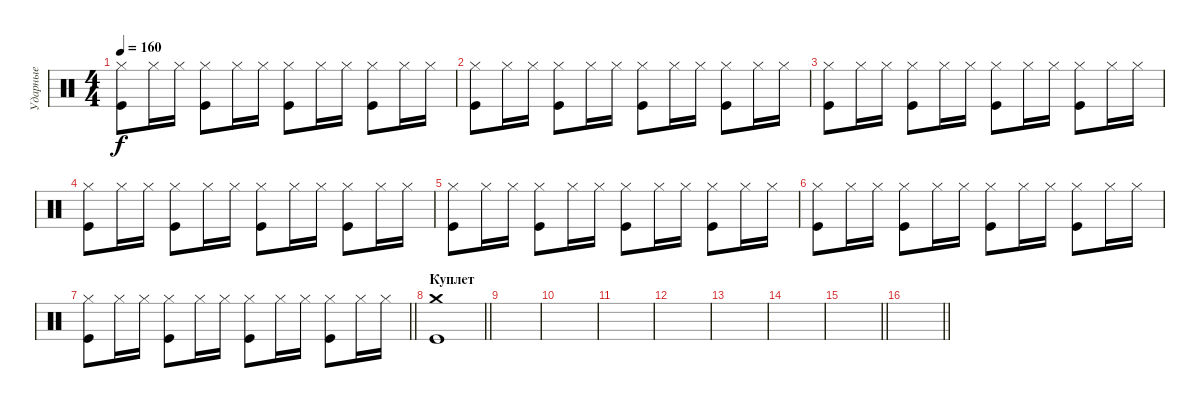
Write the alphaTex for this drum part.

\track ("Ударные" "Ударные") {instrument percussion}
\staff {score}
\articulation defaults
\ts (4 4)
\tempo 160
\clef neutral
\ks c
("Hi-Hat (closed)" "Kick (hit)").8{dy f} "Hi-Hat (closed)".16 "Hi-Hat (closed)".16 ("Hi-Hat (closed)" "Kick (hit)").8 "Hi-Hat (closed)".16 "Hi-Hat (closed)".16 ("Hi-Hat (closed)" "Kick (hit)").8 "Hi-Hat (closed)".16 "Hi-Hat (closed)".16 ("Hi-Hat (closed)" "Kick (hit)").8 "Hi-Hat (closed)".16 "Hi-Hat (closed)".16 |
("Hi-Hat (closed)" "Kick (hit)").8 "Hi-Hat (closed)".16 "Hi-Hat (closed)".16 ("Hi-Hat (closed)" "Kick (hit)").8 "Hi-Hat (closed)".16 "Hi-Hat (closed)".16 ("Hi-Hat (closed)" "Kick (hit)").8 "Hi-Hat (closed)".16 "Hi-Hat (closed)".16 ("Hi-Hat (closed)" "Kick (hit)").8 "Hi-Hat (closed)".16 "Hi-Hat (closed)".16 |
("Hi-Hat (closed)" "Kick (hit)").8 "Hi-Hat (closed)".16 "Hi-Hat (closed)".16 ("Hi-Hat (closed)" "Kick (hit)").8 "Hi-Hat (closed)".16 "Hi-Hat (closed)".16 ("Hi-Hat (closed)" "Kick (hit)").8 "Hi-Hat (closed)".16 "Hi-Hat (closed)".16 ("Hi-Hat (closed)" "Kick (hit)").8 "Hi-Hat (closed)".16 "Hi-Hat (closed)".16 |
("Hi-Hat (closed)" "Kick (hit)").8 "Hi-Hat (closed)".16 "Hi-Hat (closed)".16 ("Hi-Hat (closed)" "Kick (hit)").8 "Hi-Hat (closed)".16 "Hi-Hat (closed)".16 ("Hi-Hat (closed)" "Kick (hit)").8 "Hi-Hat (closed)".16 "Hi-Hat (closed)".16 ("Hi-Hat (closed)" "Kick (hit)").8 "Hi-Hat (closed)".16 "Hi-Hat (closed)".16 |
("Hi-Hat (closed)" "Kick (hit)").8 "Hi-Hat (closed)".16 "Hi-Hat (closed)".16 ("Hi-Hat (closed)" "Kick (hit)").8 "Hi-Hat (closed)".16 "Hi-Hat (closed)".16 ("Hi-Hat (closed)" "Kick (hit)").8 "Hi-Hat (closed)".16 "Hi-Hat (closed)".16 ("Hi-Hat (closed)" "Kick (hit)").8 "Hi-Hat (closed)".16 "Hi-Hat (closed)".16 |
("Hi-Hat (closed)" "Kick (hit)").8 "Hi-Hat (closed)".16 "Hi-Hat (closed)".16 ("Hi-Hat (closed)" "Kick (hit)").8 "Hi-Hat (closed)".16 "Hi-Hat (closed)".16 ("Hi-Hat (closed)" "Kick (hit)").8 "Hi-Hat (closed)".16 "Hi-Hat (closed)".16 ("Hi-Hat (closed)" "Kick (hit)").8 "Hi-Hat (closed)".16 "Hi-Hat (closed)".16 |
\barLineRight lightlight
("Hi-Hat (closed)" "Kick (hit)").8 "Hi-Hat (closed)".16 "Hi-Hat (closed)".16 ("Hi-Hat (closed)" "Kick (hit)").8 "Hi-Hat (closed)".16 "Hi-Hat (closed)".16 ("Hi-Hat (closed)" "Kick (hit)").8 "Hi-Hat (closed)".16 "Hi-Hat (closed)".16 ("Hi-Hat (closed)" "Kick (hit)").8 "Hi-Hat (closed)".16 "Hi-Hat (closed)".16 |
\section ("" "Куплет")
\barLineRight lightlight
("Crash medium (hit)" "Kick (hit)").1 |
|
|
|
|
|
|
\barLineRight lightlight
|
\section ("" " ")
\barLineRight lightlight
